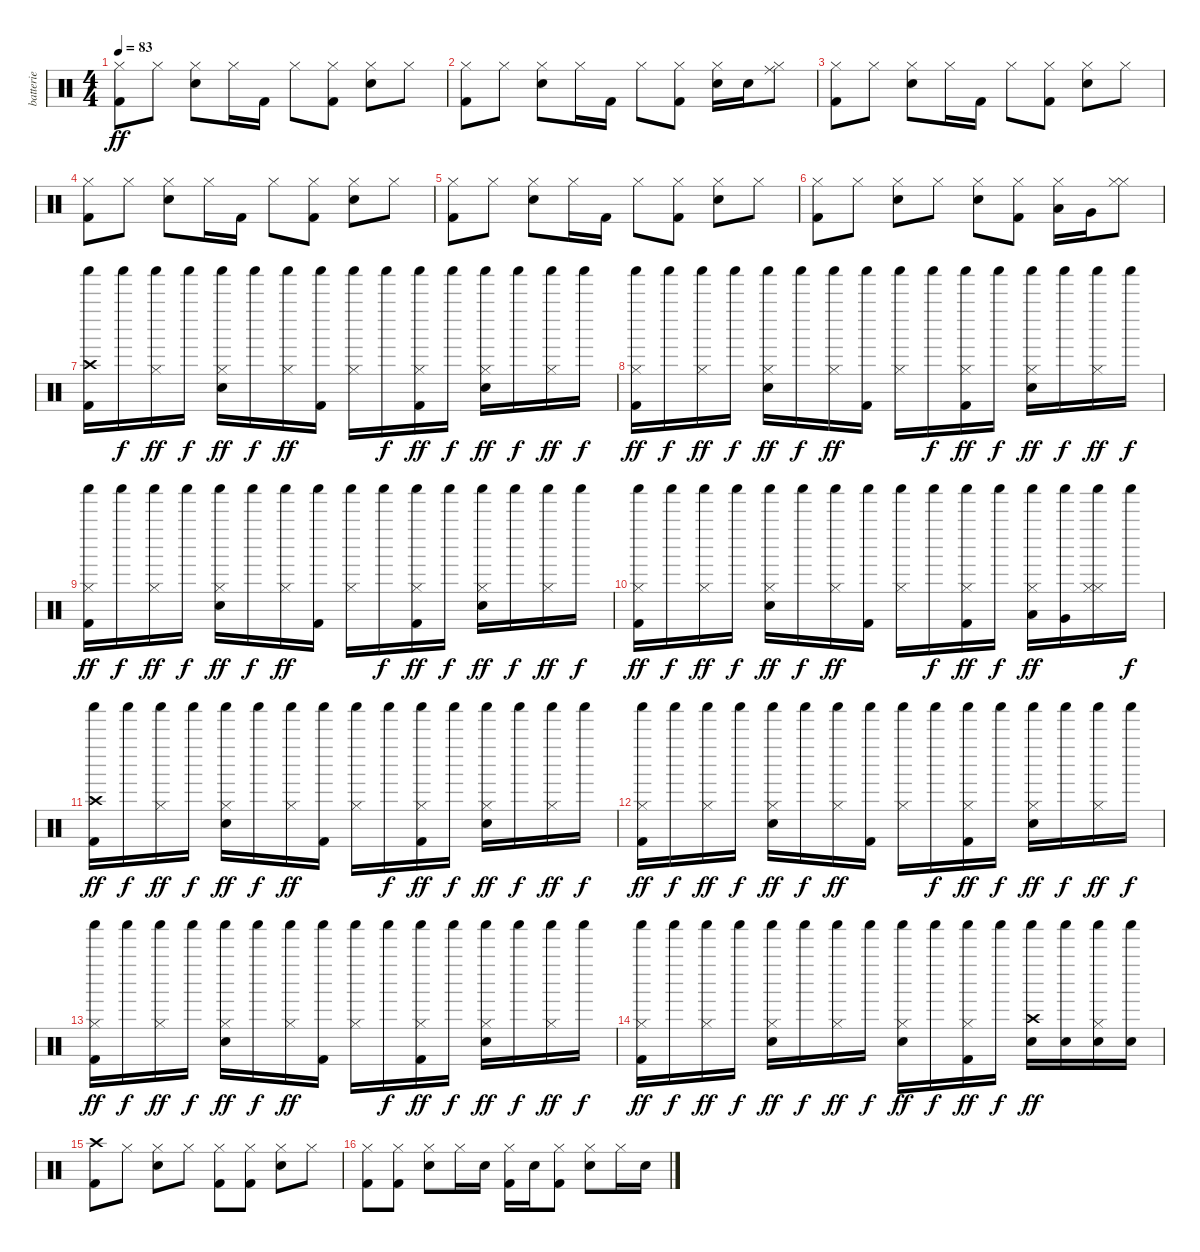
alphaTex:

\track ("batterie" "batterie") {instrument percussion}
\staff {score}
\articulation defaults
\ts (4 4)
\tempo 83
\clef neutral
\ks c
("Kick (hit) 2" "Hi-Hat (closed)").8{dy ff} "Hi-Hat (closed)".8 ("Snare (hit) 2" "Hi-Hat (closed)").8 "Hi-Hat (closed)".16 "Kick (hit) 2".16 "Hi-Hat (closed)".8 ("Kick (hit) 2" "Hi-Hat (closed)").8 ("Snare (hit) 2" "Hi-Hat (closed)").8 "Hi-Hat (closed)".8 |
("Kick (hit) 2" "Hi-Hat (closed)").8 "Hi-Hat (closed)".8 ("Snare (hit) 2" "Hi-Hat (closed)").8 "Hi-Hat (closed)".16 "Kick (hit) 2".16 "Hi-Hat (closed)".8 ("Kick (hit) 2" "Hi-Hat (closed)").8 ("Snare (hit) 2" "Hi-Hat (closed)").16 "Snare (hit) 2".16 ("Hi-Hat (closed)" "Ride (middle)").8 |
("Kick (hit) 2" "Hi-Hat (closed)").8 "Hi-Hat (closed)".8 ("Snare (hit) 2" "Hi-Hat (closed)").8 "Hi-Hat (closed)".16 "Kick (hit) 2".16 "Hi-Hat (closed)".8 ("Kick (hit) 2" "Hi-Hat (closed)").8 ("Snare (hit) 2" "Hi-Hat (closed)").8 "Hi-Hat (closed)".8 |
("Kick (hit) 2" "Hi-Hat (closed)").8 "Hi-Hat (closed)".8 ("Snare (hit) 2" "Hi-Hat (closed)").8 "Hi-Hat (closed)".16 "Kick (hit) 2".16 "Hi-Hat (closed)".8 ("Kick (hit) 2" "Hi-Hat (closed)").8 ("Snare (hit) 2" "Hi-Hat (closed)").8 "Hi-Hat (closed)".8 |
("Kick (hit) 2" "Hi-Hat (closed)").8 "Hi-Hat (closed)".8 ("Snare (hit) 2" "Hi-Hat (closed)").8 "Hi-Hat (closed)".16 "Kick (hit) 2".16 "Hi-Hat (closed)".8 ("Kick (hit) 2" "Hi-Hat (closed)").8 ("Snare (hit) 2" "Hi-Hat (closed)").8 "Hi-Hat (closed)".8 |
("Kick (hit) 2" "Hi-Hat (closed)").8 "Hi-Hat (closed)".8 ("Snare (hit) 2" "Hi-Hat (closed)").8 "Hi-Hat (closed)".8 ("Snare (hit) 2" "Hi-Hat (closed)").8 ("Kick (hit) 2" "Hi-Hat (closed)").8 ("Hi-Hat (closed)" "Low Tom (hit)").16 "Very Low Tom (hit)".16 ("Hi-Hat (closed)" "Hi-Hat (closed)").8 |
("Kick (hit) 2" "Crash high (hit)" "Shaker (hit)").16 "Shaker (hit)".16{dy f} ("Hi-Hat (closed)" "Shaker (hit)").16{dy ff} "Shaker (hit)".16{dy f} ("Snare (hit) 2" "Hi-Hat (closed)" "Shaker (hit)").16{dy ff} "Shaker (hit)".16{dy f} ("Hi-Hat (closed)" "Shaker (hit)").16{dy ff} ("Kick (hit) 2" "Shaker (hit)").16 ("Hi-Hat (closed)" "Shaker (hit)").16 "Shaker (hit)".16{dy f} ("Kick (hit) 2" "Hi-Hat (closed)" "Shaker (hit)").16{dy ff} "Shaker (hit)".16{dy f} ("Snare (hit) 2" "Hi-Hat (closed)" "Shaker (hit)").16{dy ff} "Shaker (hit)".16{dy f} ("Hi-Hat (closed)" "Shaker (hit)").16{dy ff} "Shaker (hit)".16{dy f} |
("Kick (hit) 2" "Hi-Hat (closed)" "Shaker (hit)").16{dy ff} "Shaker (hit)".16{dy f} ("Hi-Hat (closed)" "Shaker (hit)").16{dy ff} "Shaker (hit)".16{dy f} ("Snare (hit) 2" "Hi-Hat (closed)" "Shaker (hit)").16{dy ff} "Shaker (hit)".16{dy f} ("Hi-Hat (closed)" "Shaker (hit)").16{dy ff} ("Kick (hit) 2" "Shaker (hit)").16 ("Hi-Hat (closed)" "Shaker (hit)").16 "Shaker (hit)".16{dy f} ("Kick (hit) 2" "Hi-Hat (closed)" "Shaker (hit)").16{dy ff} "Shaker (hit)".16{dy f} ("Snare (hit) 2" "Hi-Hat (closed)" "Shaker (hit)").16{dy ff} "Shaker (hit)".16{dy f} ("Hi-Hat (closed)" "Shaker (hit)").16{dy ff} "Shaker (hit)".16{dy f} |
("Kick (hit) 2" "Hi-Hat (closed)" "Shaker (hit)").16{dy ff} "Shaker (hit)".16{dy f} ("Hi-Hat (closed)" "Shaker (hit)").16{dy ff} "Shaker (hit)".16{dy f} ("Snare (hit) 2" "Hi-Hat (closed)" "Shaker (hit)").16{dy ff} "Shaker (hit)".16{dy f} ("Hi-Hat (closed)" "Shaker (hit)").16{dy ff} ("Kick (hit) 2" "Shaker (hit)").16 ("Hi-Hat (closed)" "Shaker (hit)").16 "Shaker (hit)".16{dy f} ("Kick (hit) 2" "Hi-Hat (closed)" "Shaker (hit)").16{dy ff} "Shaker (hit)".16{dy f} ("Snare (hit) 2" "Hi-Hat (closed)" "Shaker (hit)").16{dy ff} "Shaker (hit)".16{dy f} ("Hi-Hat (closed)" "Shaker (hit)").16{dy ff} "Shaker (hit)".16{dy f} |
("Kick (hit) 2" "Hi-Hat (closed)" "Shaker (hit)").16{dy ff} "Shaker (hit)".16{dy f} ("Hi-Hat (closed)" "Shaker (hit)").16{dy ff} "Shaker (hit)".16{dy f} ("Snare (hit) 2" "Hi-Hat (closed)" "Shaker (hit)").16{dy ff} "Shaker (hit)".16{dy f} ("Hi-Hat (closed)" "Shaker (hit)").16{dy ff} ("Kick (hit) 2" "Shaker (hit)").16 ("Hi-Hat (closed)" "Shaker (hit)").16 "Shaker (hit)".16{dy f} ("Kick (hit) 2" "Hi-Hat (closed)" "Shaker (hit)").16{dy ff} "Shaker (hit)".16{dy f} ("Hi-Hat (closed)" "Low Tom (hit)" "Shaker (hit)").16{dy ff} ("Very Low Tom (hit)" "Shaker (hit)").16 ("Hi-Hat (closed)" "Hi-Hat (closed)" "Shaker (hit)").16 "Shaker (hit)".16{dy f} |
("Kick (hit) 2" "Crash high (hit)" "Shaker (hit)").16{dy ff} "Shaker (hit)".16{dy f} ("Hi-Hat (closed)" "Shaker (hit)").16{dy ff} "Shaker (hit)".16{dy f} ("Snare (hit) 2" "Hi-Hat (closed)" "Shaker (hit)").16{dy ff} "Shaker (hit)".16{dy f} ("Hi-Hat (closed)" "Shaker (hit)").16{dy ff} ("Kick (hit) 2" "Shaker (hit)").16 ("Hi-Hat (closed)" "Shaker (hit)").16 "Shaker (hit)".16{dy f} ("Kick (hit) 2" "Hi-Hat (closed)" "Shaker (hit)").16{dy ff} "Shaker (hit)".16{dy f} ("Snare (hit) 2" "Hi-Hat (closed)" "Shaker (hit)").16{dy ff} "Shaker (hit)".16{dy f} ("Hi-Hat (closed)" "Shaker (hit)").16{dy ff} "Shaker (hit)".16{dy f} |
("Kick (hit) 2" "Hi-Hat (closed)" "Shaker (hit)").16{dy ff} "Shaker (hit)".16{dy f} ("Hi-Hat (closed)" "Shaker (hit)").16{dy ff} "Shaker (hit)".16{dy f} ("Snare (hit) 2" "Hi-Hat (closed)" "Shaker (hit)").16{dy ff} "Shaker (hit)".16{dy f} ("Hi-Hat (closed)" "Shaker (hit)").16{dy ff} ("Kick (hit) 2" "Shaker (hit)").16 ("Hi-Hat (closed)" "Shaker (hit)").16 "Shaker (hit)".16{dy f} ("Kick (hit) 2" "Hi-Hat (closed)" "Shaker (hit)").16{dy ff} "Shaker (hit)".16{dy f} ("Snare (hit) 2" "Hi-Hat (closed)" "Shaker (hit)").16{dy ff} "Shaker (hit)".16{dy f} ("Hi-Hat (closed)" "Shaker (hit)").16{dy ff} "Shaker (hit)".16{dy f} |
("Kick (hit) 2" "Hi-Hat (closed)" "Shaker (hit)").16{dy ff} "Shaker (hit)".16{dy f} ("Hi-Hat (closed)" "Shaker (hit)").16{dy ff} "Shaker (hit)".16{dy f} ("Snare (hit) 2" "Hi-Hat (closed)" "Shaker (hit)").16{dy ff} "Shaker (hit)".16{dy f} ("Hi-Hat (closed)" "Shaker (hit)").16{dy ff} ("Kick (hit) 2" "Shaker (hit)").16 ("Hi-Hat (closed)" "Shaker (hit)").16 "Shaker (hit)".16{dy f} ("Kick (hit) 2" "Hi-Hat (closed)" "Shaker (hit)").16{dy ff} "Shaker (hit)".16{dy f} ("Snare (hit) 2" "Hi-Hat (closed)" "Shaker (hit)").16{dy ff} "Shaker (hit)".16{dy f} ("Hi-Hat (closed)" "Shaker (hit)").16{dy ff} "Shaker (hit)".16{dy f} |
("Kick (hit) 2" "Hi-Hat (closed)" "Shaker (hit)").16{dy ff} "Shaker (hit)".16{dy f} ("Hi-Hat (closed)" "Shaker (hit)").16{dy ff} "Shaker (hit)".16{dy f} ("Snare (hit) 2" "Hi-Hat (closed)" "Shaker (hit)").16{dy ff} "Shaker (hit)".16{dy f} ("Hi-Hat (closed)" "Shaker (hit)").16{dy ff} "Shaker (hit)".16{dy f} ("Snare (hit) 2" "Hi-Hat (closed)" "Shaker (hit)").16{dy ff} "Shaker (hit)".16{dy f} ("Kick (hit) 2" "Hi-Hat (closed)" "Shaker (hit)").16{dy ff} "Shaker (hit)".16{dy f} ("Snare (hit) 2" "Crash high (hit)" "Shaker (hit)").16{dy ff} ("Snare (hit) 2" "Shaker (hit)").16 ("Snare (hit) 2" "Hi-Hat (closed)" "Shaker (hit)").16 ("Snare (hit) 2" "Shaker (hit)").16 |
("Kick (hit) 2" "Crash high (hit)").8 "Hi-Hat (closed)".8 ("Snare (hit) 2" "Hi-Hat (closed)").8 "Hi-Hat (closed)".8 ("Kick (hit) 2" "Hi-Hat (closed)").8 ("Kick (hit) 2" "Hi-Hat (closed)").8 ("Snare (hit) 2" "Hi-Hat (closed)").8 "Hi-Hat (closed)".8 |
("Kick (hit) 2" "Hi-Hat (closed)").8 ("Kick (hit) 2" "Hi-Hat (closed)").8 ("Snare (hit) 2" "Hi-Hat (closed)").8 "Hi-Hat (closed)".16 "Snare (hit) 2".16 ("Kick (hit) 2" "Hi-Hat (closed)").16 "Snare (hit) 2".16 ("Kick (hit) 2" "Hi-Hat (closed)").8 ("Snare (hit) 2" "Hi-Hat (closed)").8 "Hi-Hat (closed)".16 "Snare (hit) 2".16
